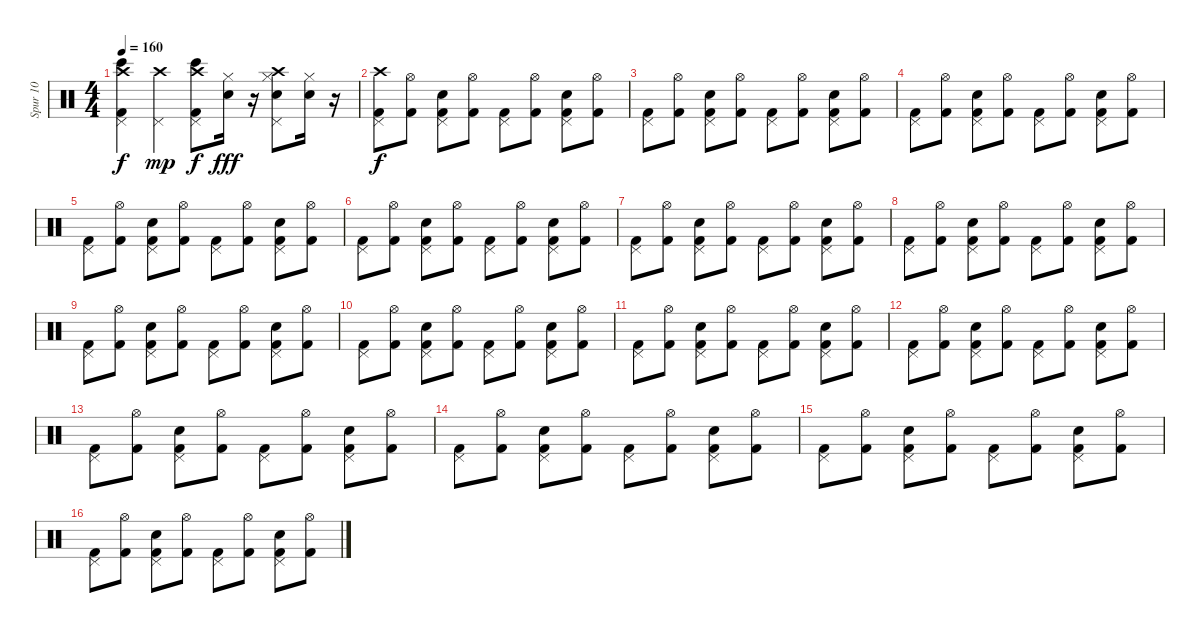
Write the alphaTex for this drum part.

\track ("Spur 10" "Spur 10") {instrument percussion}
\staff {score}
\articulation defaults
\ts (4 4)
\tempo 160
\clef neutral
\ks c
("Bongo High (hit)" "Kick (hit) 2" "Pedal Hi-Hat (hit)" "Crash high (hit)").4{dy f} ("Crash high (hit)" "Pedal Hi-Hat (hit)").4{dy mp} ("Bongo High (hit)" "Crash high (hit)" "Kick (hit) 2" "Pedal Hi-Hat (hit)").8{dy f} ("Hi-Hat (closed)" "Hand Clap (hit)").16{dy fff} r.16 ("Crash high (hit)" "Pedal Hi-Hat (hit)" "Hi-Hat (closed)" "Hand Clap (hit)").8 ("Hi-Hat (closed)" "Hand Clap (hit)").16 r.16 |
("Pedal Hi-Hat (hit)" "Kick (hit) 2" "Crash high (hit)").8{dy f} ("Hi-Hat (open)" "Kick (hit) 2").8 ("Snare (hit) 2" "Pedal Hi-Hat (hit)" "Kick (hit) 2").8 ("Hi-Hat (open)" "Kick (hit) 2").8 ("Pedal Hi-Hat (hit)" "Kick (hit) 2").8 ("Kick (hit) 2" "Hi-Hat (open)").8 ("Snare (hit) 2" "Kick (hit) 2" "Pedal Hi-Hat (hit)").8 ("Hi-Hat (open)" "Kick (hit) 2").8 |
("Kick (hit) 2" "Pedal Hi-Hat (hit)").8 ("Kick (hit) 2" "Hi-Hat (open)").8 ("Kick (hit) 2" "Snare (hit) 2" "Pedal Hi-Hat (hit)").8 ("Hi-Hat (open)" "Kick (hit) 2").8 ("Kick (hit) 2" "Pedal Hi-Hat (hit)").8 ("Hi-Hat (open)" "Kick (hit) 2").8 ("Pedal Hi-Hat (hit)" "Snare (hit) 2" "Kick (hit) 2").8 ("Kick (hit) 2" "Hi-Hat (open)").8 |
("Kick (hit) 2" "Pedal Hi-Hat (hit)").8 ("Kick (hit) 2" "Hi-Hat (open)").8 ("Snare (hit) 2" "Pedal Hi-Hat (hit)" "Kick (hit) 2").8 ("Kick (hit) 2" "Hi-Hat (open)").8 ("Pedal Hi-Hat (hit)" "Kick (hit) 2").8 ("Hi-Hat (open)" "Kick (hit) 2").8 ("Pedal Hi-Hat (hit)" "Kick (hit) 2" "Snare (hit) 2").8 ("Kick (hit) 2" "Hi-Hat (open)").8 |
("Kick (hit) 2" "Pedal Hi-Hat (hit)").8 ("Kick (hit) 2" "Hi-Hat (open)").8 ("Kick (hit) 2" "Pedal Hi-Hat (hit)" "Snare (hit) 2").8 ("Kick (hit) 2" "Hi-Hat (open)").8 ("Kick (hit) 2" "Pedal Hi-Hat (hit)").8 ("Kick (hit) 2" "Hi-Hat (open)").8 ("Kick (hit) 2" "Snare (hit) 2" "Pedal Hi-Hat (hit)").8 ("Kick (hit) 2" "Hi-Hat (open)").8 |
("Pedal Hi-Hat (hit)" "Kick (hit) 2").8 ("Kick (hit) 2" "Hi-Hat (open)").8 ("Kick (hit) 2" "Snare (hit) 2" "Pedal Hi-Hat (hit)").8 ("Hi-Hat (open)" "Kick (hit) 2").8 ("Kick (hit) 2" "Pedal Hi-Hat (hit)").8 ("Hi-Hat (open)" "Kick (hit) 2").8 ("Kick (hit) 2" "Snare (hit) 2" "Pedal Hi-Hat (hit)").8 ("Hi-Hat (open)" "Kick (hit) 2").8 |
("Kick (hit) 2" "Pedal Hi-Hat (hit)").8 ("Kick (hit) 2" "Hi-Hat (open)").8 ("Pedal Hi-Hat (hit)" "Snare (hit) 2" "Kick (hit) 2").8 ("Kick (hit) 2" "Hi-Hat (open)").8 ("Pedal Hi-Hat (hit)" "Kick (hit) 2").8 ("Kick (hit) 2" "Hi-Hat (open)").8 ("Pedal Hi-Hat (hit)" "Kick (hit) 2" "Snare (hit) 2").8 ("Kick (hit) 2" "Hi-Hat (open)").8 |
("Pedal Hi-Hat (hit)" "Kick (hit) 2").8 ("Kick (hit) 2" "Hi-Hat (open)").8 ("Snare (hit) 2" "Pedal Hi-Hat (hit)" "Kick (hit) 2").8 ("Hi-Hat (open)" "Kick (hit) 2").8 ("Kick (hit) 2" "Pedal Hi-Hat (hit)").8 ("Hi-Hat (open)" "Kick (hit) 2").8 ("Pedal Hi-Hat (hit)" "Kick (hit) 2" "Snare (hit) 2").8 ("Hi-Hat (open)" "Kick (hit) 2").8 |
("Pedal Hi-Hat (hit)" "Kick (hit) 2").8 ("Hi-Hat (open)" "Kick (hit) 2").8 ("Kick (hit) 2" "Snare (hit) 2" "Pedal Hi-Hat (hit)").8 ("Hi-Hat (open)" "Kick (hit) 2").8 ("Pedal Hi-Hat (hit)" "Kick (hit) 2").8 ("Hi-Hat (open)" "Kick (hit) 2").8 ("Snare (hit) 2" "Pedal Hi-Hat (hit)" "Kick (hit) 2").8 ("Kick (hit) 2" "Hi-Hat (open)").8 |
("Kick (hit) 2" "Pedal Hi-Hat (hit)").8 ("Hi-Hat (open)" "Kick (hit) 2").8 ("Snare (hit) 2" "Pedal Hi-Hat (hit)" "Kick (hit) 2").8 ("Kick (hit) 2" "Hi-Hat (open)").8 ("Kick (hit) 2" "Pedal Hi-Hat (hit)").8 ("Kick (hit) 2" "Hi-Hat (open)").8 ("Kick (hit) 2" "Snare (hit) 2" "Pedal Hi-Hat (hit)").8 ("Hi-Hat (open)" "Kick (hit) 2").8 |
("Pedal Hi-Hat (hit)" "Kick (hit) 2").8 ("Hi-Hat (open)" "Kick (hit) 2").8 ("Kick (hit) 2" "Snare (hit) 2" "Pedal Hi-Hat (hit)").8 ("Kick (hit) 2" "Hi-Hat (open)").8 ("Pedal Hi-Hat (hit)" "Kick (hit) 2").8 ("Hi-Hat (open)" "Kick (hit) 2").8 ("Pedal Hi-Hat (hit)" "Kick (hit) 2" "Snare (hit) 2").8 ("Kick (hit) 2" "Hi-Hat (open)").8 |
("Pedal Hi-Hat (hit)" "Kick (hit) 2").8 ("Hi-Hat (open)" "Kick (hit) 2").8 ("Kick (hit) 2" "Pedal Hi-Hat (hit)" "Snare (hit) 2").8 ("Hi-Hat (open)" "Kick (hit) 2").8 ("Kick (hit) 2" "Pedal Hi-Hat (hit)").8 ("Kick (hit) 2" "Hi-Hat (open)").8 ("Pedal Hi-Hat (hit)" "Kick (hit) 2" "Snare (hit) 2").8 ("Hi-Hat (open)" "Kick (hit) 2").8 |
("Pedal Hi-Hat (hit)" "Kick (hit) 2").8 ("Kick (hit) 2" "Hi-Hat (open)").8 ("Snare (hit) 2" "Pedal Hi-Hat (hit)" "Kick (hit) 2").8 ("Kick (hit) 2" "Hi-Hat (open)").8 ("Pedal Hi-Hat (hit)" "Kick (hit) 2").8 ("Hi-Hat (open)" "Kick (hit) 2").8 ("Kick (hit) 2" "Snare (hit) 2" "Pedal Hi-Hat (hit)").8 ("Kick (hit) 2" "Hi-Hat (open)").8 |
("Pedal Hi-Hat (hit)" "Kick (hit) 2").8 ("Hi-Hat (open)" "Kick (hit) 2").8 ("Kick (hit) 2" "Pedal Hi-Hat (hit)" "Snare (hit) 2").8 ("Kick (hit) 2" "Hi-Hat (open)").8 ("Kick (hit) 2" "Pedal Hi-Hat (hit)").8 ("Hi-Hat (open)" "Kick (hit) 2").8 ("Snare (hit) 2" "Kick (hit) 2" "Pedal Hi-Hat (hit)").8 ("Kick (hit) 2" "Hi-Hat (open)").8 |
("Pedal Hi-Hat (hit)" "Kick (hit) 2").8 ("Hi-Hat (open)" "Kick (hit) 2").8 ("Snare (hit) 2" "Kick (hit) 2" "Pedal Hi-Hat (hit)").8 ("Hi-Hat (open)" "Kick (hit) 2").8 ("Kick (hit) 2" "Pedal Hi-Hat (hit)").8 ("Kick (hit) 2" "Hi-Hat (open)").8 ("Pedal Hi-Hat (hit)" "Kick (hit) 2" "Snare (hit) 2").8 ("Hi-Hat (open)" "Kick (hit) 2").8 |
("Kick (hit) 2" "Pedal Hi-Hat (hit)").8 ("Hi-Hat (open)" "Kick (hit) 2").8 ("Kick (hit) 2" "Pedal Hi-Hat (hit)" "Snare (hit) 2").8 ("Hi-Hat (open)" "Kick (hit) 2").8 ("Pedal Hi-Hat (hit)" "Kick (hit) 2").8 ("Kick (hit) 2" "Hi-Hat (open)").8 ("Snare (hit) 2" "Kick (hit) 2" "Pedal Hi-Hat (hit)").8 ("Kick (hit) 2" "Hi-Hat (open)").8
